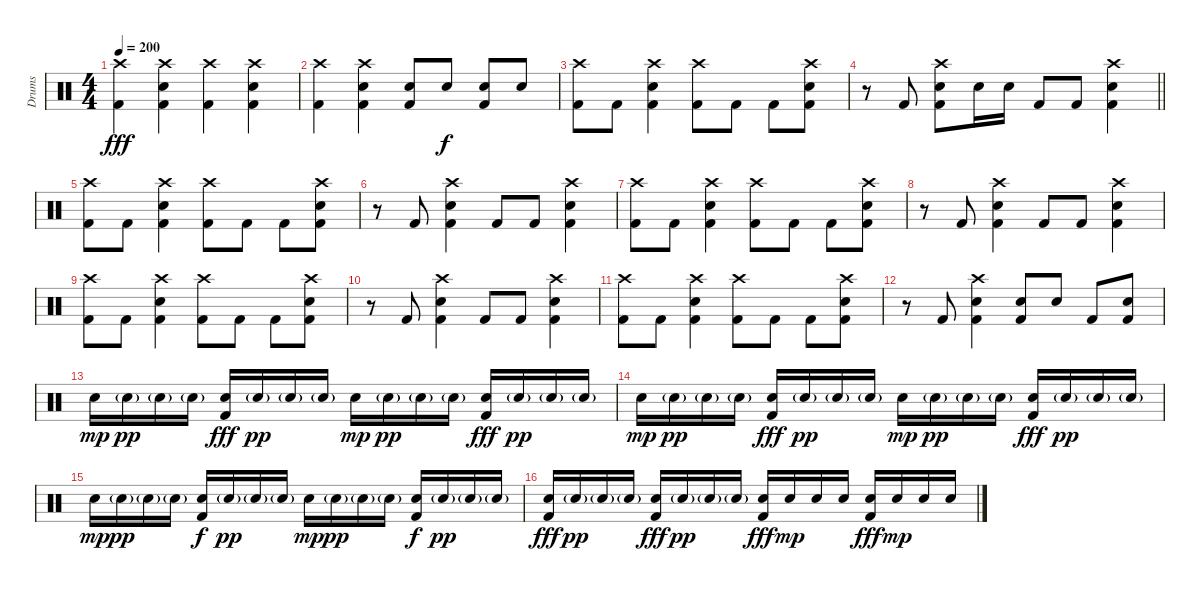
\track ("Drums" "Drums") {instrument percussion}
\staff {score}
\articulation defaults
\ts (4 4)
\tempo 200
\clef neutral
\ks c
("Crash high (hit)" "Kick (hit) 2").4{dy fff} ("Crash high (hit)" "Snare (hit) 2" "Kick (hit) 2").4 ("Crash high (hit)" "Kick (hit) 2").4 ("Crash high (hit)" "Snare (hit) 2" "Kick (hit) 2").4 |
("Crash high (hit)" "Kick (hit) 2").4 ("Crash high (hit)" "Snare (hit) 2" "Kick (hit) 2").4 ("Snare (hit) 2" "Kick (hit) 2").8 "Snare (hit) 2".8{dy f} ("Snare (hit) 2" "Kick (hit) 2").8 "Snare (hit) 2".8 |
("Crash high (hit)" "Kick (hit) 2").8 "Kick (hit) 2".8 ("Crash high (hit)" "Snare (hit) 2" "Kick (hit) 2").4 ("Crash high (hit)" "Kick (hit) 2").8 "Kick (hit) 2".8 "Kick (hit) 2".8 ("Crash high (hit)" "Snare (hit) 2" "Kick (hit) 2").8 |
\barLineRight lightlight
r.8 "Kick (hit) 2".8 ("Crash high (hit)" "Snare (hit) 2" "Kick (hit) 2").8 "Snare (hit) 2".16 "Snare (hit) 2".16 "Kick (hit) 2".8 "Kick (hit) 2".8 ("Crash high (hit)" "Snare (hit) 2" "Kick (hit) 2").4 |
("Crash high (hit)" "Kick (hit) 2").8 "Kick (hit) 2".8 ("Crash high (hit)" "Snare (hit) 2" "Kick (hit) 2").4 ("Crash high (hit)" "Kick (hit) 2").8 "Kick (hit) 2".8 "Kick (hit) 2".8 ("Crash high (hit)" "Snare (hit) 2" "Kick (hit) 2").8 |
r.8 "Kick (hit) 2".8 ("Crash high (hit)" "Snare (hit) 2" "Kick (hit) 2").4 "Kick (hit) 2".8 "Kick (hit) 2".8 ("Crash high (hit)" "Snare (hit) 2" "Kick (hit) 2").4 |
("Crash high (hit)" "Kick (hit) 2").8 "Kick (hit) 2".8 ("Crash high (hit)" "Snare (hit) 2" "Kick (hit) 2").4 ("Crash high (hit)" "Kick (hit) 2").8 "Kick (hit) 2".8 "Kick (hit) 2".8 ("Crash high (hit)" "Snare (hit) 2" "Kick (hit) 2").8 |
r.8 "Kick (hit) 2".8 ("Crash high (hit)" "Snare (hit) 2" "Kick (hit) 2").4 "Kick (hit) 2".8 "Kick (hit) 2".8 ("Crash high (hit)" "Snare (hit) 2" "Kick (hit) 2").4 |
("Crash high (hit)" "Kick (hit) 2").8 "Kick (hit) 2".8 ("Crash high (hit)" "Snare (hit) 2" "Kick (hit) 2").4 ("Crash high (hit)" "Kick (hit) 2").8 "Kick (hit) 2".8 "Kick (hit) 2".8 ("Crash high (hit)" "Snare (hit) 2" "Kick (hit) 2").8 |
r.8 "Kick (hit) 2".8 ("Crash high (hit)" "Snare (hit) 2" "Kick (hit) 2").4 "Kick (hit) 2".8 "Kick (hit) 2".8 ("Crash high (hit)" "Snare (hit) 2" "Kick (hit) 2").4 |
("Crash high (hit)" "Kick (hit) 2").8 "Kick (hit) 2".8 ("Crash high (hit)" "Snare (hit) 2" "Kick (hit) 2").4 ("Crash high (hit)" "Kick (hit) 2").8 "Kick (hit) 2".8 "Kick (hit) 2".8 ("Crash high (hit)" "Snare (hit) 2" "Kick (hit) 2").8 |
r.8 "Kick (hit) 2".8 ("Crash high (hit)" "Snare (hit) 2" "Kick (hit) 2").4 ("Snare (hit) 2" "Kick (hit) 2").8 "Snare (hit) 2".8 "Kick (hit) 2".8 ("Snare (hit) 2" "Kick (hit) 2").8 |
"Snare (hit) 2".16{dy mp} "Snare (hit) 2"{g}.16{dy pp} "Snare (hit) 2"{g}.16 "Snare (hit) 2"{g}.16 ("Snare (hit) 2" "Kick (hit) 2").16{dy fff} "Snare (hit) 2"{g}.16{dy pp} "Snare (hit) 2"{g}.16 "Snare (hit) 2"{g}.16 "Snare (hit) 2".16{dy mp} "Snare (hit) 2"{g}.16{dy pp} "Snare (hit) 2"{g}.16 "Snare (hit) 2"{g}.16 ("Snare (hit) 2" "Kick (hit) 2").16{dy fff} "Snare (hit) 2"{g}.16{dy pp} "Snare (hit) 2"{g}.16 "Snare (hit) 2"{g}.16 |
"Snare (hit) 2".16{dy mp} "Snare (hit) 2"{g}.16{dy pp} "Snare (hit) 2"{g}.16 "Snare (hit) 2"{g}.16 ("Snare (hit) 2" "Kick (hit) 2").16{dy fff} "Snare (hit) 2"{g}.16{dy pp} "Snare (hit) 2"{g}.16 "Snare (hit) 2"{g}.16 "Snare (hit) 2".16{dy mp} "Snare (hit) 2"{g}.16{dy pp} "Snare (hit) 2"{g}.16 "Snare (hit) 2"{g}.16 ("Snare (hit) 2" "Kick (hit) 2").16{dy fff} "Snare (hit) 2"{g}.16{dy pp} "Snare (hit) 2"{g}.16 "Snare (hit) 2"{g}.16 |
"Snare (hit) 2".16{dy mp} "Snare (hit) 2"{g}.16{dy pp} "Snare (hit) 2"{g}.16 "Snare (hit) 2"{g}.16 ("Snare (hit) 2" "Kick (hit) 2").16{dy f} "Snare (hit) 2"{g}.16{dy pp} "Snare (hit) 2"{g}.16 "Snare (hit) 2"{g}.16 "Snare (hit) 2".16{dy mp} "Snare (hit) 2"{g}.16{dy pp} "Snare (hit) 2"{g}.16 "Snare (hit) 2"{g}.16 ("Snare (hit) 2" "Kick (hit) 2").16{dy f} "Snare (hit) 2"{g}.16{dy pp} "Snare (hit) 2"{g}.16 "Snare (hit) 2"{g}.16 |
("Snare (hit) 2" "Kick (hit) 2").16{dy fff} "Snare (hit) 2"{g}.16{dy pp} "Snare (hit) 2"{g}.16 "Snare (hit) 2"{g}.16 ("Snare (hit) 2" "Kick (hit) 2").16{dy fff} "Snare (hit) 2"{g}.16{dy pp} "Snare (hit) 2"{g}.16 "Snare (hit) 2"{g}.16 ("Snare (hit) 2" "Kick (hit) 2").16{dy fff} "Snare (hit) 2".16{dy mp} "Snare (hit) 2".16 "Snare (hit) 2".16 ("Snare (hit) 2" "Kick (hit) 2").16{dy fff} "Snare (hit) 2".16{dy mp} "Snare (hit) 2".16 "Snare (hit) 2".16
